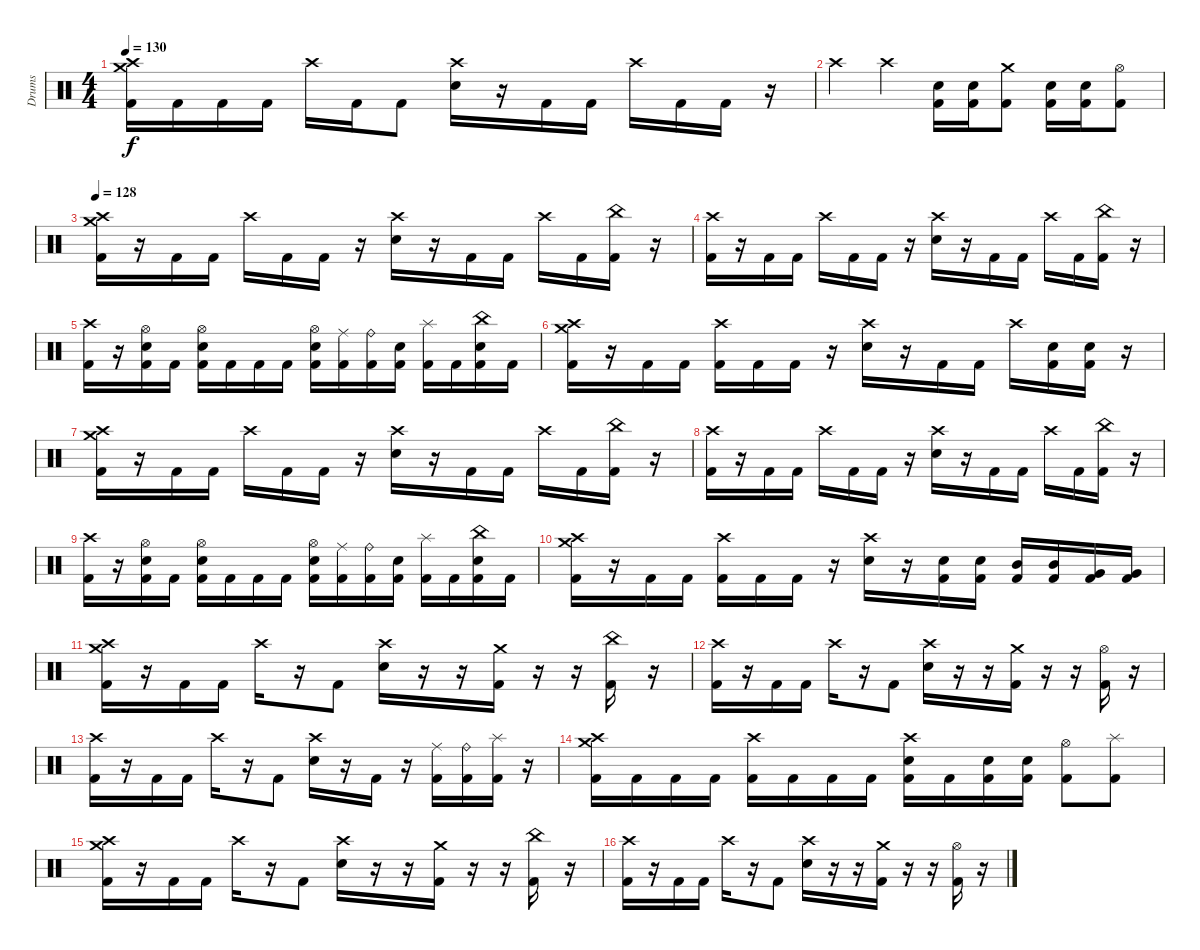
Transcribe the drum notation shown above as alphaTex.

\track ("Drums" "Drums") {solo instrument percussion}
\staff {score}
\articulation defaults
\ts (4 4)
\tempo 130
\clef neutral
\ks c
("Crash high (hit)" "Crash medium (hit)" "Kick (hit) 2").16{dy f} "Kick (hit) 2".16 "Kick (hit) 2".16 "Kick (hit) 2".16 "Crash high (hit)".16 "Kick (hit) 2".16 "Kick (hit) 2".8 ("Crash high (hit)" "Electric Snare (hit)").16 r.16 "Kick (hit) 2".16 "Kick (hit) 2".16 "Crash high (hit)".16 "Kick (hit) 2".16 "Kick (hit) 2".16 r.16 |
"Crash high (hit)".4 "Crash high (hit)".4 ("Electric Snare (hit)" "Kick (hit) 2").16 ("Electric Snare (hit)" "Kick (hit) 2").16 ("Crash medium (hit)" "Kick (hit) 2").8 ("Electric Snare (hit)" "Kick (hit) 2").16 ("Electric Snare (hit)" "Kick (hit) 2").16 ("Hi-Hat (open)" "Kick (hit) 2").8 |
\tempo 128
("Crash high (hit)" "Crash medium (hit)" "Kick (hit) 2").16 r.16 "Kick (hit) 2".16 "Kick (hit) 2".16 "Crash high (hit)".16 "Kick (hit) 2".16 "Kick (hit) 2".16 r.16 ("Crash high (hit)" "Electric Snare (hit)").16 r.16 "Kick (hit) 2".16 "Kick (hit) 2".16 "Crash high (hit)".16 "Kick (hit) 2".16 ("China (hit)" "Kick (hit) 2").16 r.16 |
("Crash high (hit)" "Kick (hit) 2").16 r.16 "Kick (hit) 2".16 "Kick (hit) 2".16 "Crash high (hit)".16 "Kick (hit) 2".16 "Kick (hit) 2".16 r.16 ("Crash high (hit)" "Electric Snare (hit)").16 r.16 "Kick (hit) 2".16 "Kick (hit) 2".16 "Crash high (hit)".16 "Kick (hit) 2".16 ("China (hit)" "Kick (hit) 2").16 r.16 |
("Crash high (hit)" "Kick (hit) 2").16 r.16 ("Hi-Hat (open)" "Electric Snare (hit)" "Kick (hit) 2").16 "Kick (hit) 2".16 ("Hi-Hat (open)" "Electric Snare (hit)" "Kick (hit) 2").16 "Kick (hit) 2".16 "Kick (hit) 2".16 "Kick (hit) 2".16 ("Hi-Hat (open)" "Electric Snare (hit)" "Kick (hit) 2").16 ("Ride (middle)" "Kick (hit) 2").16 ("Ride (bell)" "Kick (hit) 2").16 ("Electric Snare (hit)" "Kick (hit) 2").16 ("Splash (hit)" "Kick (hit) 2").16 "Kick (hit) 2".16 ("China (hit)" "Electric Snare (hit)" "Kick (hit) 2").16 "Kick (hit) 2".16 |
("Crash high (hit)" "Crash medium (hit)" "Kick (hit) 2").16 r.16 "Kick (hit) 2".16 "Kick (hit) 2".16 ("Crash high (hit)" "Kick (hit) 2").16 "Kick (hit) 2".16 "Kick (hit) 2".16 r.16 ("Crash high (hit)" "Electric Snare (hit)").16 r.16 "Kick (hit) 2".16 "Kick (hit) 2".16 "Crash high (hit)".16 ("Electric Snare (hit)" "Kick (hit) 2").16 ("Electric Snare (hit)" "Kick (hit) 2").16 r.16 |
("Crash high (hit)" "Crash medium (hit)" "Kick (hit) 2").16 r.16 "Kick (hit) 2".16 "Kick (hit) 2".16 "Crash high (hit)".16 "Kick (hit) 2".16 "Kick (hit) 2".16 r.16 ("Crash high (hit)" "Electric Snare (hit)").16 r.16 "Kick (hit) 2".16 "Kick (hit) 2".16 "Crash high (hit)".16 "Kick (hit) 2".16 ("China (hit)" "Kick (hit) 2").16 r.16 |
("Crash high (hit)" "Kick (hit) 2").16 r.16 "Kick (hit) 2".16 "Kick (hit) 2".16 "Crash high (hit)".16 "Kick (hit) 2".16 "Kick (hit) 2".16 r.16 ("Crash high (hit)" "Electric Snare (hit)").16 r.16 "Kick (hit) 2".16 "Kick (hit) 2".16 "Crash high (hit)".16 "Kick (hit) 2".16 ("China (hit)" "Kick (hit) 2").16 r.16 |
("Crash high (hit)" "Kick (hit) 2").16 r.16 ("Hi-Hat (open)" "Electric Snare (hit)" "Kick (hit) 2").16 "Kick (hit) 2".16 ("Hi-Hat (open)" "Electric Snare (hit)" "Kick (hit) 2").16 "Kick (hit) 2".16 "Kick (hit) 2".16 "Kick (hit) 2".16 ("Hi-Hat (open)" "Electric Snare (hit)" "Kick (hit) 2").16 ("Ride (middle)" "Kick (hit) 2").16 ("Ride (bell)" "Kick (hit) 2").16 ("Electric Snare (hit)" "Kick (hit) 2").16 ("Splash (hit)" "Kick (hit) 2").16 "Kick (hit) 2".16 ("China (hit)" "Electric Snare (hit)" "Kick (hit) 2").16 "Kick (hit) 2".16 |
("Crash high (hit)" "Crash medium (hit)" "Kick (hit) 2").16 r.16 "Kick (hit) 2".16 "Kick (hit) 2".16 ("Crash high (hit)" "Kick (hit) 2").16 "Kick (hit) 2".16 "Kick (hit) 2".16 r.16 ("Crash high (hit)" "Electric Snare (hit)").16 r.16 ("Electric Snare (hit)" "Kick (hit) 2").16 ("Electric Snare (hit)" "Kick (hit) 2").16 ("Mid Tom (hit)" "Kick (hit) 2").16 ("Mid Tom (hit)" "Kick (hit) 2").16 ("Very Low Tom (hit)" "Kick (hit) 2").16 ("Very Low Tom (hit)" "Kick (hit) 2").16 |
("Crash high (hit)" "Crash medium (hit)" "Kick (hit) 2").16 r.16 "Kick (hit) 2".16 "Kick (hit) 2".16 "Crash high (hit)".16 r.16 "Kick (hit) 2".8 ("Crash high (hit)" "Electric Snare (hit)").16 r.16 r.16 ("Crash medium (hit)" "Kick (hit) 2").16 r.16 r.16 ("China (hit)" "Kick (hit) 2").16 r.16 |
("Crash high (hit)" "Kick (hit) 2").16 r.16 "Kick (hit) 2".16 "Kick (hit) 2".16 "Crash high (hit)".16 r.16 "Kick (hit) 2".8 ("Crash high (hit)" "Electric Snare (hit)").16 r.16 r.16 ("Crash medium (hit)" "Kick (hit) 2").16 r.16 r.16 ("Hi-Hat (open)" "Kick (hit) 2").16 r.16 |
("Crash high (hit)" "Kick (hit) 2").16 r.16 "Kick (hit) 2".16 "Kick (hit) 2".16 "Crash high (hit)".16 r.16 "Kick (hit) 2".8 ("Crash high (hit)" "Electric Snare (hit)").16 r.16 "Kick (hit) 2".16 r.16 ("Ride (middle)" "Kick (hit) 2").16 ("Ride (bell)" "Kick (hit) 2").16 ("Splash (hit)" "Kick (hit) 2").16 r.16 |
("Crash high (hit)" "Crash medium (hit)" "Kick (hit) 2").16 "Kick (hit) 2".16 "Kick (hit) 2".16 "Kick (hit) 2".16 ("Crash high (hit)" "Kick (hit) 2").16 "Kick (hit) 2".16 "Kick (hit) 2".16 "Kick (hit) 2".16 ("Crash high (hit)" "Electric Snare (hit)" "Kick (hit) 2").16 "Kick (hit) 2".16 ("Electric Snare (hit)" "Kick (hit) 2").16 ("Electric Snare (hit)" "Kick (hit) 2").16 ("Hi-Hat (open)" "Kick (hit) 2").8 ("Splash (hit)" "Kick (hit) 2").8 |
("Crash high (hit)" "Crash medium (hit)" "Kick (hit) 2").16 r.16 "Kick (hit) 2".16 "Kick (hit) 2".16 "Crash high (hit)".16 r.16 "Kick (hit) 2".8 ("Crash high (hit)" "Electric Snare (hit)").16 r.16 r.16 ("Crash medium (hit)" "Kick (hit) 2").16 r.16 r.16 ("China (hit)" "Kick (hit) 2").16 r.16 |
("Crash high (hit)" "Kick (hit) 2").16 r.16 "Kick (hit) 2".16 "Kick (hit) 2".16 "Crash high (hit)".16 r.16 "Kick (hit) 2".8 ("Crash high (hit)" "Electric Snare (hit)").16 r.16 r.16 ("Crash medium (hit)" "Kick (hit) 2").16 r.16 r.16 ("Hi-Hat (open)" "Kick (hit) 2").16 r.16
